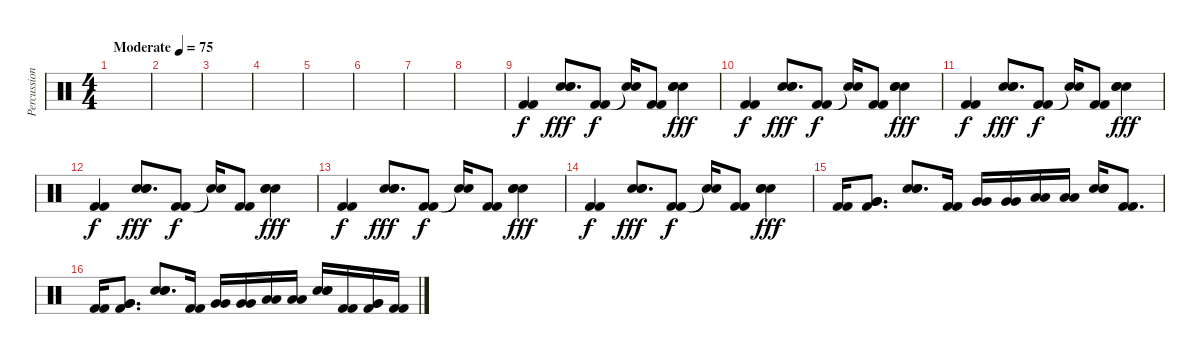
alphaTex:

\track ("Percussion" "Percussion") {instrument percussion}
\staff {score}
\articulation defaults
\ts (4 4)
\tempo (75 "Moderate")
\clef neutral
\ks c
|
|
|
|
|
|
|
|
("Kick (hit) 2" "Kick (hit) 2").4 ("Hand Clap (hit)" "Hand Clap (hit)" "Hand Clap (hit)").8{d dy fff} ("Kick (hit) 2" "Kick (hit) 2").8{dy f} ("Snare (hit)"{t} "Snare (hit)"{t}).16 ("Kick (hit) 2" "Kick (hit) 2").8 ("Hand Clap (hit)" "Hand Clap (hit)" "Hand Clap (hit)").4{dy fff} |
("Kick (hit) 2" "Kick (hit) 2").4{dy f} ("Hand Clap (hit)" "Hand Clap (hit)" "Hand Clap (hit)").8{d dy fff} ("Kick (hit) 2" "Kick (hit) 2").8{dy f} ("Snare (hit)"{t} "Snare (hit)"{t}).16 ("Kick (hit) 2" "Kick (hit) 2").8 ("Hand Clap (hit)" "Hand Clap (hit)" "Hand Clap (hit)").4{dy fff} |
("Kick (hit) 2" "Kick (hit) 2").4{dy f} ("Hand Clap (hit)" "Hand Clap (hit)" "Hand Clap (hit)").8{d dy fff} ("Kick (hit) 2" "Kick (hit) 2").8{dy f} ("Snare (hit)"{t} "Snare (hit)"{t}).16 ("Kick (hit) 2" "Kick (hit) 2").8 ("Hand Clap (hit)" "Hand Clap (hit)" "Hand Clap (hit)").4{dy fff} |
("Kick (hit) 2" "Kick (hit) 2").4{dy f} ("Hand Clap (hit)" "Hand Clap (hit)" "Hand Clap (hit)").8{d dy fff} ("Kick (hit) 2" "Kick (hit) 2").8{dy f} ("Snare (hit)"{t} "Snare (hit)"{t}).16 ("Kick (hit) 2" "Kick (hit) 2").8 ("Hand Clap (hit)" "Hand Clap (hit)" "Hand Clap (hit)").4{dy fff} |
("Kick (hit) 2" "Kick (hit) 2").4{dy f} ("Hand Clap (hit)" "Hand Clap (hit)" "Hand Clap (hit)").8{d dy fff} ("Kick (hit) 2" "Kick (hit) 2").8{dy f} ("Snare (hit)"{t} "Snare (hit)"{t}).16 ("Kick (hit) 2" "Kick (hit) 2").8 ("Hand Clap (hit)" "Hand Clap (hit)" "Hand Clap (hit)").4{dy fff} |
("Kick (hit) 2" "Kick (hit) 2").4{dy f} ("Hand Clap (hit)" "Hand Clap (hit)" "Hand Clap (hit)").8{d dy fff} ("Kick (hit) 2" "Kick (hit) 2").8{dy f} ("Snare (hit)"{t} "Snare (hit)"{t}).16 ("Kick (hit) 2" "Kick (hit) 2").8 ("Hand Clap (hit)" "Hand Clap (hit)" "Hand Clap (hit)").4{dy fff} |
("Kick (hit) 2" "Kick (hit) 2").16 ("Very Low Tom (hit)" "Very Low Tom (hit)" "Kick (hit) 2").8{d} ("Hand Clap (hit)" "Hand Clap (hit)" "Hand Clap (hit)").8{d} ("Kick (hit) 2" "Kick (hit) 2").16 ("Very Low Tom (hit)" "Very Low Tom (hit)").16 ("Very Low Tom (hit)" "Very Low Tom (hit)").16 ("Low Floor Tom (hit)" "Low Floor Tom (hit)").16 ("Low Floor Tom (hit)" "Low Floor Tom (hit)").16 ("Hand Clap (hit)" "Hand Clap (hit)" "Hand Clap (hit)").16 ("Kick (hit) 2" "Kick (hit) 2").8{d} |
("Kick (hit) 2" "Kick (hit) 2").16 ("Very Low Tom (hit)" "Very Low Tom (hit)" "Kick (hit) 2").8{d} ("Hand Clap (hit)" "Hand Clap (hit)" "Hand Clap (hit)").8{d} ("Kick (hit) 2" "Kick (hit) 2").16 ("Very Low Tom (hit)" "Very Low Tom (hit)").16 ("Very Low Tom (hit)" "Very Low Tom (hit)").16 ("Low Floor Tom (hit)" "Low Floor Tom (hit)").16 ("Low Floor Tom (hit)" "Low Floor Tom (hit)").16 ("Hand Clap (hit)" "Hand Clap (hit)" "Hand Clap (hit)").16 ("Kick (hit) 2" "Kick (hit) 2").16 ("Very Low Tom (hit)" "Very Low Tom (hit)" "Kick (hit) 2").16 ("Kick (hit) 2" "Kick (hit) 2").16
